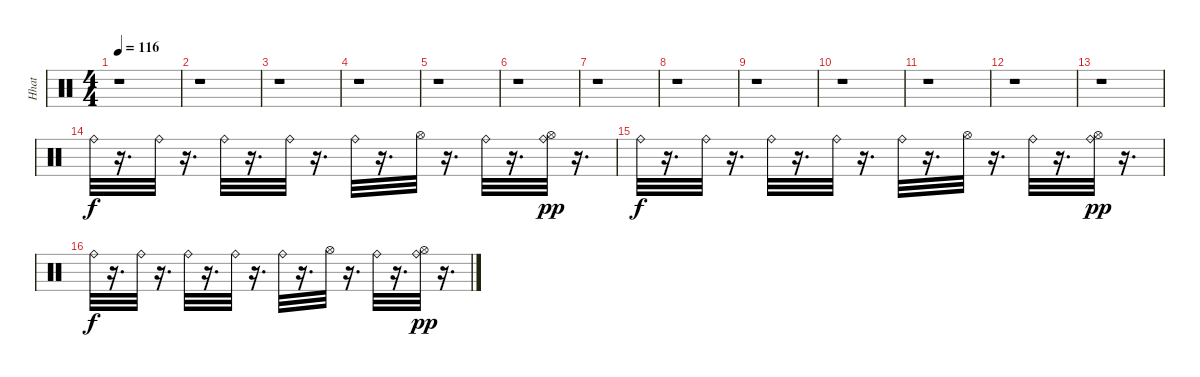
\track ("Hhat" "Hhat") {instrument percussion}
\staff {score}
\articulation defaults
\ts (4 4)
\tempo 116
\clef neutral
\ks c
r.1{dy f} |
r.1 |
r.1 |
r.1 |
r.1 |
r.1 |
r.1 |
r.1 |
r.1 |
r.1 |
r.1 |
r.1 |
r.1 |
"Ride (bell)".32 r.16{d} "Ride (bell)".32 r.16{d} "Ride (bell)".32 r.16{d} "Ride (bell)".32 r.16{d} "Ride (bell)".32 r.16{d} "Hi-Hat (open)".32 r.16{d} "Ride (bell)".32 r.16{d} ("Ride (bell)" "Hi-Hat (open)").32{dy pp} r.16{d} |
"Ride (bell)".32{dy f} r.16{d} "Ride (bell)".32 r.16{d} "Ride (bell)".32 r.16{d} "Ride (bell)".32 r.16{d} "Ride (bell)".32 r.16{d} "Hi-Hat (open)".32 r.16{d} "Ride (bell)".32 r.16{d} ("Ride (bell)" "Hi-Hat (open)").32{dy pp} r.16{d} |
"Ride (bell)".32{dy f} r.16{d} "Ride (bell)".32 r.16{d} "Ride (bell)".32 r.16{d} "Ride (bell)".32 r.16{d} "Ride (bell)".32 r.16{d} "Hi-Hat (open)".32 r.16{d} "Ride (bell)".32 r.16{d} ("Ride (bell)" "Hi-Hat (open)").32{dy pp} r.16{d}
